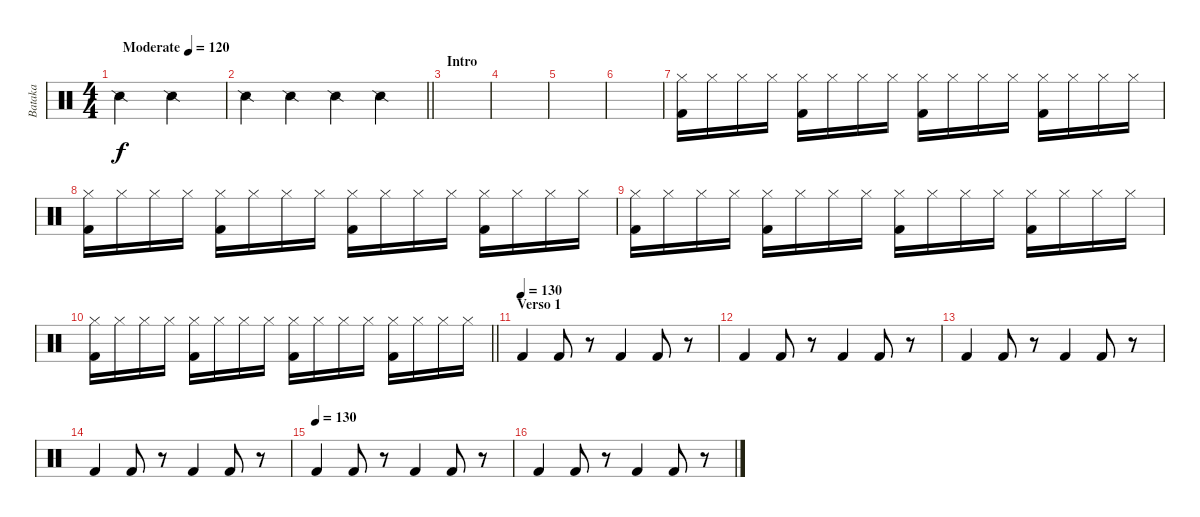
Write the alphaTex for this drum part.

\track ("Bataka" "Bataka") {instrument percussion}
\staff {score}
\articulation defaults
\ts (4 4)
\tempo (120 "Moderate")
\clef neutral
\ks c "Snare (side stick) 2".2{dy f} "Snare (side stick) 2".2
|
\barLineRight lightlight "Snare (side stick) 2".4 "Snare (side stick) 2".4 "Snare (side stick) 2".4 "Snare (side stick) 2".4
|
\section ("" "Intro")
|
|
|
|
("Kick (hit) 2" "Hi-Hat (closed)").16 "Hi-Hat (closed)".16 "Hi-Hat (closed)".16 "Hi-Hat (closed)".16 ("Kick (hit) 2" "Hi-Hat (closed)").16 "Hi-Hat (closed)".16 "Hi-Hat (closed)".16 "Hi-Hat (closed)".16 ("Kick (hit) 2" "Hi-Hat (closed)").16 "Hi-Hat (closed)".16 "Hi-Hat (closed)".16 "Hi-Hat (closed)".16 ("Kick (hit) 2" "Hi-Hat (closed)").16 "Hi-Hat (closed)".16 "Hi-Hat (closed)".16 "Hi-Hat (closed)".16 |
("Kick (hit) 2" "Hi-Hat (closed)").16 "Hi-Hat (closed)".16 "Hi-Hat (closed)".16 "Hi-Hat (closed)".16 ("Kick (hit) 2" "Hi-Hat (closed)").16 "Hi-Hat (closed)".16 "Hi-Hat (closed)".16 "Hi-Hat (closed)".16 ("Kick (hit) 2" "Hi-Hat (closed)").16 "Hi-Hat (closed)".16 "Hi-Hat (closed)".16 "Hi-Hat (closed)".16 ("Kick (hit) 2" "Hi-Hat (closed)").16 "Hi-Hat (closed)".16 "Hi-Hat (closed)".16 "Hi-Hat (closed)".16 |
("Kick (hit) 2" "Hi-Hat (closed)").16 "Hi-Hat (closed)".16 "Hi-Hat (closed)".16 "Hi-Hat (closed)".16 ("Kick (hit) 2" "Hi-Hat (closed)").16 "Hi-Hat (closed)".16 "Hi-Hat (closed)".16 "Hi-Hat (closed)".16 ("Kick (hit) 2" "Hi-Hat (closed)").16 "Hi-Hat (closed)".16 "Hi-Hat (closed)".16 "Hi-Hat (closed)".16 ("Kick (hit) 2" "Hi-Hat (closed)").16 "Hi-Hat (closed)".16 "Hi-Hat (closed)".16 "Hi-Hat (closed)".16 |
\barLineRight lightlight
("Kick (hit) 2" "Hi-Hat (closed)").16 "Hi-Hat (closed)".16 "Hi-Hat (closed)".16 "Hi-Hat (closed)".16 ("Kick (hit) 2" "Hi-Hat (closed)").16 "Hi-Hat (closed)".16 "Hi-Hat (closed)".16 "Hi-Hat (closed)".16 ("Kick (hit) 2" "Hi-Hat (closed)").16 "Hi-Hat (closed)".16 "Hi-Hat (closed)".16 "Hi-Hat (closed)".16 ("Kick (hit) 2" "Hi-Hat (closed)").16 "Hi-Hat (closed)".16 "Hi-Hat (closed)".16 "Hi-Hat (closed)".16 |
\section ("" "Verso 1")
\tempo (130)
"Kick (hit) 2".4 "Kick (hit) 2".8 r.8 "Kick (hit) 2".4 "Kick (hit) 2".8 r.8 |
"Kick (hit) 2".4 "Kick (hit) 2".8 r.8 "Kick (hit) 2".4 "Kick (hit) 2".8 r.8 |
"Kick (hit) 2".4 "Kick (hit) 2".8 r.8 "Kick (hit) 2".4 "Kick (hit) 2".8 r.8 |
"Kick (hit) 2".4 "Kick (hit) 2".8 r.8 "Kick (hit) 2".4 "Kick (hit) 2".8 r.8 |
\tempo (130)
"Kick (hit) 2".4 "Kick (hit) 2".8 r.8 "Kick (hit) 2".4 "Kick (hit) 2".8 r.8 |
"Kick (hit) 2".4 "Kick (hit) 2".8 r.8 "Kick (hit) 2".4 "Kick (hit) 2".8 r.8
